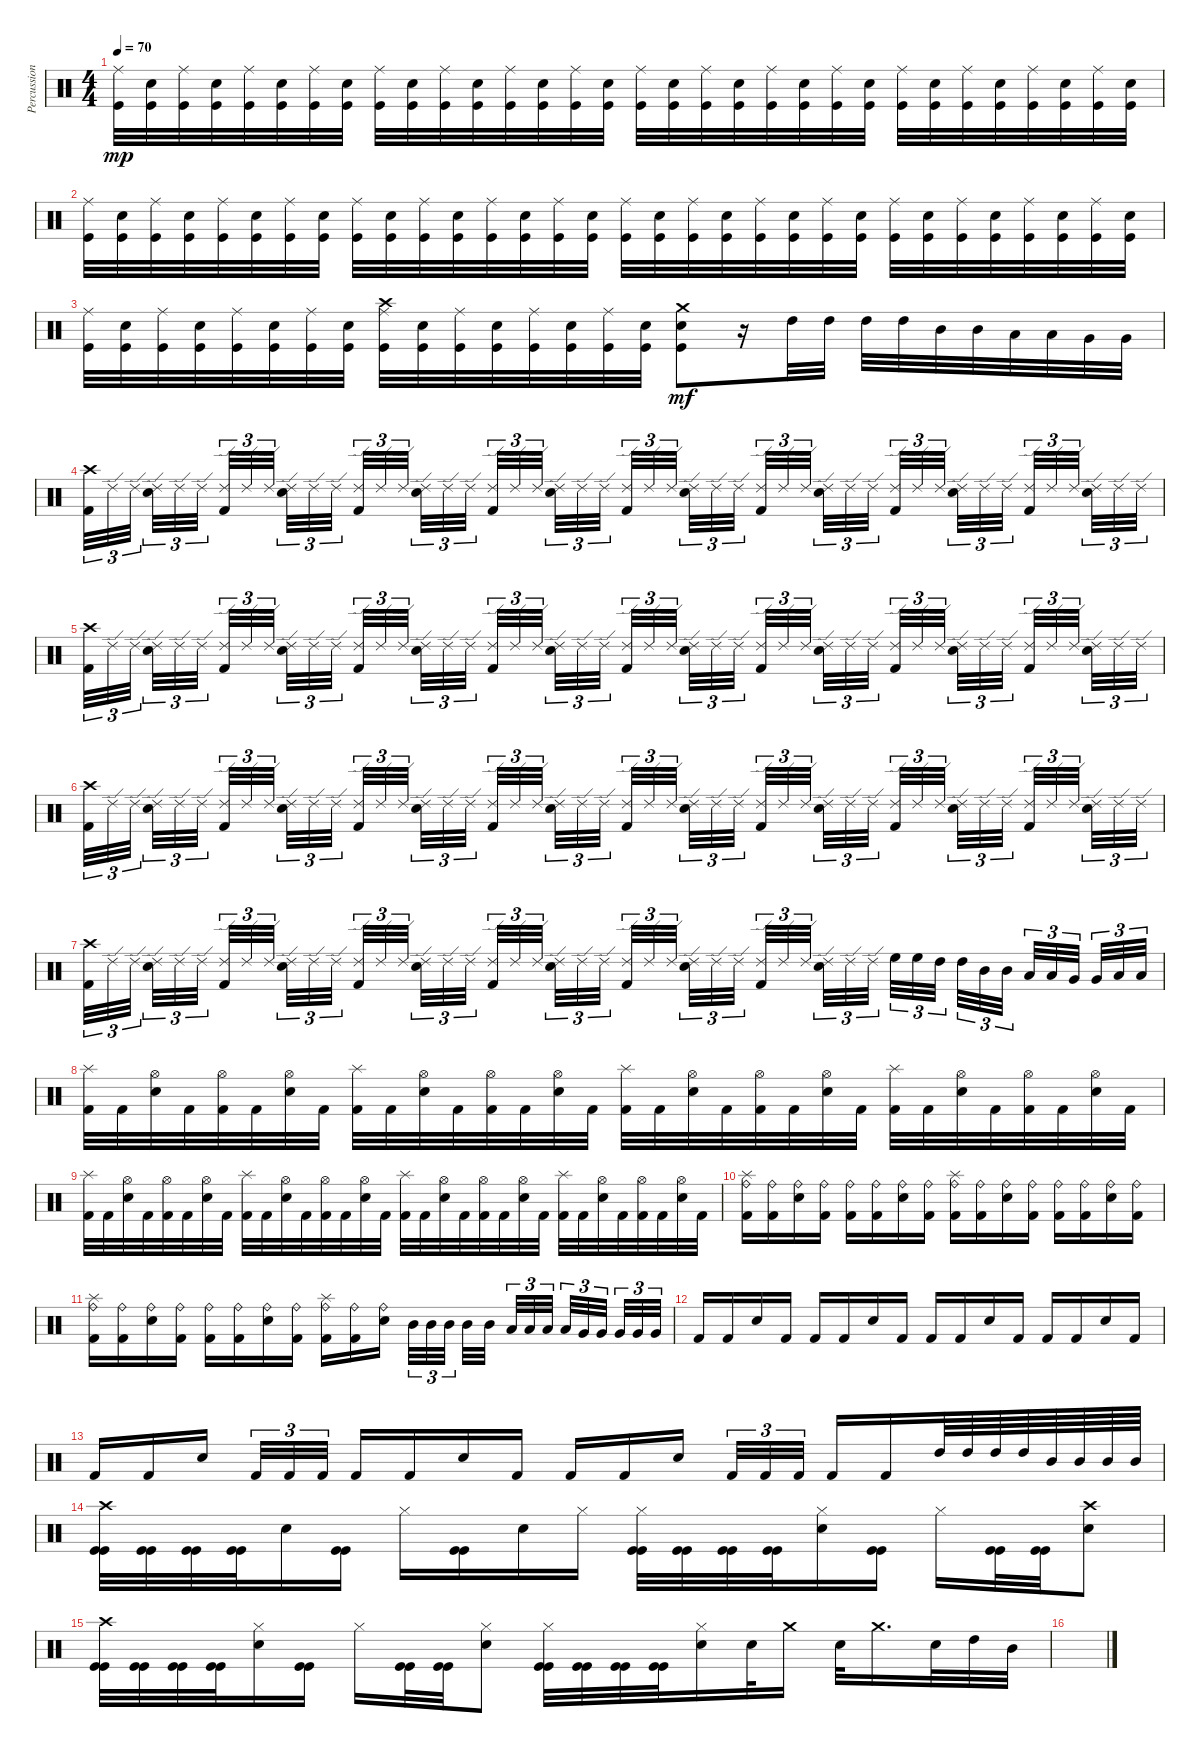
\track ("Percussion" "Percussion") {instrument percussion}
\staff {score}
\articulation defaults
\ts (4 4)
\tempo 70
\clef neutral
\ks c
("Ride (middle)" "Kick (hit)").32{dy mp} ("Electric Snare (hit)" "Kick (hit)").32 ("Ride (middle)" "Kick (hit)").32 ("Electric Snare (hit)" "Kick (hit)").32 ("Ride (middle)" "Kick (hit)").32 ("Electric Snare (hit)" "Kick (hit)").32 ("Ride (middle)" "Kick (hit)").32 ("Electric Snare (hit)" "Kick (hit)").32 ("Ride (middle)" "Kick (hit)").32 ("Electric Snare (hit)" "Kick (hit)").32 ("Ride (middle)" "Kick (hit)").32 ("Electric Snare (hit)" "Kick (hit)").32 ("Ride (middle)" "Kick (hit)").32 ("Electric Snare (hit)" "Kick (hit)").32 ("Ride (middle)" "Kick (hit)").32 ("Electric Snare (hit)" "Kick (hit)").32 ("Ride (middle)" "Kick (hit)").32 ("Electric Snare (hit)" "Kick (hit)").32 ("Ride (middle)" "Kick (hit)").32 ("Electric Snare (hit)" "Kick (hit)").32 ("Ride (middle)" "Kick (hit)").32 ("Electric Snare (hit)" "Kick (hit)").32 ("Ride (middle)" "Kick (hit)").32 ("Electric Snare (hit)" "Kick (hit)").32 ("Ride (middle)" "Kick (hit)").32 ("Electric Snare (hit)" "Kick (hit)").32 ("Ride (middle)" "Kick (hit)").32 ("Electric Snare (hit)" "Kick (hit)").32 ("Ride (middle)" "Kick (hit)").32 ("Electric Snare (hit)" "Kick (hit)").32 ("Ride (middle)" "Kick (hit)").32 ("Electric Snare (hit)" "Kick (hit)").32 |
("Ride (middle)" "Kick (hit)").32 ("Electric Snare (hit)" "Kick (hit)").32 ("Ride (middle)" "Kick (hit)").32 ("Electric Snare (hit)" "Kick (hit)").32 ("Ride (middle)" "Kick (hit)").32 ("Electric Snare (hit)" "Kick (hit)").32 ("Ride (middle)" "Kick (hit)").32 ("Electric Snare (hit)" "Kick (hit)").32 ("Ride (middle)" "Kick (hit)").32 ("Electric Snare (hit)" "Kick (hit)").32 ("Ride (middle)" "Kick (hit)").32 ("Electric Snare (hit)" "Kick (hit)").32 ("Ride (middle)" "Kick (hit)").32 ("Electric Snare (hit)" "Kick (hit)").32 ("Ride (middle)" "Kick (hit)").32 ("Electric Snare (hit)" "Kick (hit)").32 ("Ride (middle)" "Kick (hit)").32 ("Electric Snare (hit)" "Kick (hit)").32 ("Ride (middle)" "Kick (hit)").32 ("Electric Snare (hit)" "Kick (hit)").32 ("Ride (middle)" "Kick (hit)").32 ("Electric Snare (hit)" "Kick (hit)").32 ("Ride (middle)" "Kick (hit)").32 ("Electric Snare (hit)" "Kick (hit)").32 ("Ride (middle)" "Kick (hit)").32 ("Electric Snare (hit)" "Kick (hit)").32 ("Ride (middle)" "Kick (hit)").32 ("Electric Snare (hit)" "Kick (hit)").32 ("Ride (middle)" "Kick (hit)").32 ("Electric Snare (hit)" "Kick (hit)").32 ("Ride (middle)" "Kick (hit)").32 ("Electric Snare (hit)" "Kick (hit)").32 |
("Ride (middle)" "Kick (hit)").32 ("Electric Snare (hit)" "Kick (hit)").32 ("Ride (middle)" "Kick (hit)").32 ("Electric Snare (hit)" "Kick (hit)").32 ("Ride (middle)" "Kick (hit)").32 ("Electric Snare (hit)" "Kick (hit)").32 ("Ride (middle)" "Kick (hit)").32 ("Electric Snare (hit)" "Kick (hit)").32 ("Crash high (hit)" "Ride (middle)" "Kick (hit)").32 ("Electric Snare (hit)" "Kick (hit)").32 ("Ride (middle)" "Kick (hit)").32 ("Electric Snare (hit)" "Kick (hit)").32 ("Ride (middle)" "Kick (hit)").32 ("Electric Snare (hit)" "Kick (hit)").32 ("Ride (middle)" "Kick (hit)").32 ("Electric Snare (hit)" "Kick (hit)").32 ("Crash medium (hit)" "Electric Snare (hit)" "Kick (hit)").8{dy mf} r.16 "High Tom (hit)".32 "High Tom (hit)".32 "High Tom (hit)".32 "High Tom (hit)".32 "Mid Tom (hit)".32 "Mid Tom (hit)".32 "Low Tom (hit)".32 "Low Tom (hit)".32 "Very Low Tom (hit)".32 "Very Low Tom (hit)".32 |
("Crash high (hit)" "Kick (hit) 2").32{tu (3 2)} "Ride (edge) 2".32{tu (3 2)} "Ride (edge) 2".32{tu (3 2) beam splitsecondary} ("Ride (edge) 2" "Snare (hit) 2").32{tu (3 2)} "Ride (edge) 2".32{tu (3 2)} "Ride (edge) 2".32{tu (3 2) beam splitsecondary} ("Ride (edge) 2" "Kick (hit) 2").32{tu (3 2)} "Ride (edge) 2".32{tu (3 2)} "Ride (edge) 2".32{tu (3 2) beam splitsecondary} ("Ride (edge) 2" "Snare (hit) 2").32{tu (3 2)} "Ride (edge) 2".32{tu (3 2)} "Ride (edge) 2".32{tu (3 2)} ("Ride (edge) 2" "Kick (hit) 2").32{tu (3 2)} "Ride (edge) 2".32{tu (3 2)} "Ride (edge) 2".32{tu (3 2) beam splitsecondary} ("Ride (edge) 2" "Snare (hit) 2").32{tu (3 2)} "Ride (edge) 2".32{tu (3 2)} "Ride (edge) 2".32{tu (3 2) beam splitsecondary} ("Ride (edge) 2" "Kick (hit) 2").32{tu (3 2)} "Ride (edge) 2".32{tu (3 2)} "Ride (edge) 2".32{tu (3 2) beam splitsecondary} ("Ride (edge) 2" "Snare (hit) 2").32{tu (3 2)} "Ride (edge) 2".32{tu (3 2)} "Ride (edge) 2".32{tu (3 2)} ("Ride (edge) 2" "Kick (hit) 2").32{tu (3 2)} "Ride (edge) 2".32{tu (3 2)} "Ride (edge) 2".32{tu (3 2) beam splitsecondary} ("Ride (edge) 2" "Snare (hit) 2").32{tu (3 2)} "Ride (edge) 2".32{tu (3 2)} "Ride (edge) 2".32{tu (3 2) beam splitsecondary} ("Ride (edge) 2" "Kick (hit) 2").32{tu (3 2)} "Ride (edge) 2".32{tu (3 2)} "Ride (edge) 2".32{tu (3 2) beam splitsecondary} ("Ride (edge) 2" "Snare (hit) 2").32{tu (3 2)} "Ride (edge) 2".32{tu (3 2)} "Ride (edge) 2".32{tu (3 2)} ("Ride (edge) 2" "Kick (hit) 2").32{tu (3 2)} "Ride (edge) 2".32{tu (3 2)} "Ride (edge) 2".32{tu (3 2) beam splitsecondary} ("Ride (edge) 2" "Snare (hit) 2").32{tu (3 2)} "Ride (edge) 2".32{tu (3 2)} "Ride (edge) 2".32{tu (3 2) beam splitsecondary} ("Ride (edge) 2" "Kick (hit) 2").32{tu (3 2)} "Ride (edge) 2".32{tu (3 2)} "Ride (edge) 2".32{tu (3 2) beam splitsecondary} ("Ride (edge) 2" "Snare (hit) 2").32{tu (3 2)} "Ride (edge) 2".32{tu (3 2)} "Ride (edge) 2".32{tu (3 2)} |
("Crash high (hit)" "Kick (hit) 2").32{tu (3 2)} "Ride (edge) 2".32{tu (3 2)} "Ride (edge) 2".32{tu (3 2) beam splitsecondary} ("Ride (edge) 2" "Snare (hit) 2").32{tu (3 2)} "Ride (edge) 2".32{tu (3 2)} "Ride (edge) 2".32{tu (3 2) beam splitsecondary} ("Ride (edge) 2" "Kick (hit) 2").32{tu (3 2)} "Ride (edge) 2".32{tu (3 2)} "Ride (edge) 2".32{tu (3 2) beam splitsecondary} ("Ride (edge) 2" "Snare (hit) 2").32{tu (3 2)} "Ride (edge) 2".32{tu (3 2)} "Ride (edge) 2".32{tu (3 2)} ("Ride (edge) 2" "Kick (hit) 2").32{tu (3 2)} "Ride (edge) 2".32{tu (3 2)} "Ride (edge) 2".32{tu (3 2) beam splitsecondary} ("Ride (edge) 2" "Snare (hit) 2").32{tu (3 2)} "Ride (edge) 2".32{tu (3 2)} "Ride (edge) 2".32{tu (3 2) beam splitsecondary} ("Ride (edge) 2" "Kick (hit) 2").32{tu (3 2)} "Ride (edge) 2".32{tu (3 2)} "Ride (edge) 2".32{tu (3 2) beam splitsecondary} ("Ride (edge) 2" "Snare (hit) 2").32{tu (3 2)} "Ride (edge) 2".32{tu (3 2)} "Ride (edge) 2".32{tu (3 2)} ("Ride (edge) 2" "Kick (hit) 2").32{tu (3 2)} "Ride (edge) 2".32{tu (3 2)} "Ride (edge) 2".32{tu (3 2) beam splitsecondary} ("Ride (edge) 2" "Snare (hit) 2").32{tu (3 2)} "Ride (edge) 2".32{tu (3 2)} "Ride (edge) 2".32{tu (3 2) beam splitsecondary} ("Ride (edge) 2" "Kick (hit) 2").32{tu (3 2)} "Ride (edge) 2".32{tu (3 2)} "Ride (edge) 2".32{tu (3 2) beam splitsecondary} ("Ride (edge) 2" "Snare (hit) 2").32{tu (3 2)} "Ride (edge) 2".32{tu (3 2)} "Ride (edge) 2".32{tu (3 2)} ("Ride (edge) 2" "Kick (hit) 2").32{tu (3 2)} "Ride (edge) 2".32{tu (3 2)} "Ride (edge) 2".32{tu (3 2) beam splitsecondary} ("Ride (edge) 2" "Snare (hit) 2").32{tu (3 2)} "Ride (edge) 2".32{tu (3 2)} "Ride (edge) 2".32{tu (3 2) beam splitsecondary} ("Ride (edge) 2" "Kick (hit) 2").32{tu (3 2)} "Ride (edge) 2".32{tu (3 2)} "Ride (edge) 2".32{tu (3 2) beam splitsecondary} ("Ride (edge) 2" "Snare (hit) 2").32{tu (3 2)} "Ride (edge) 2".32{tu (3 2)} "Ride (edge) 2".32{tu (3 2)} |
("Crash high (hit)" "Kick (hit) 2").32{tu (3 2)} "Ride (edge) 2".32{tu (3 2)} "Ride (edge) 2".32{tu (3 2) beam splitsecondary} ("Ride (edge) 2" "Snare (hit) 2").32{tu (3 2)} "Ride (edge) 2".32{tu (3 2)} "Ride (edge) 2".32{tu (3 2) beam splitsecondary} ("Ride (edge) 2" "Kick (hit) 2").32{tu (3 2)} "Ride (edge) 2".32{tu (3 2)} "Ride (edge) 2".32{tu (3 2) beam splitsecondary} ("Ride (edge) 2" "Snare (hit) 2").32{tu (3 2)} "Ride (edge) 2".32{tu (3 2)} "Ride (edge) 2".32{tu (3 2)} ("Ride (edge) 2" "Kick (hit) 2").32{tu (3 2)} "Ride (edge) 2".32{tu (3 2)} "Ride (edge) 2".32{tu (3 2) beam splitsecondary} ("Ride (edge) 2" "Snare (hit) 2").32{tu (3 2)} "Ride (edge) 2".32{tu (3 2)} "Ride (edge) 2".32{tu (3 2) beam splitsecondary} ("Ride (edge) 2" "Kick (hit) 2").32{tu (3 2)} "Ride (edge) 2".32{tu (3 2)} "Ride (edge) 2".32{tu (3 2) beam splitsecondary} ("Ride (edge) 2" "Snare (hit) 2").32{tu (3 2)} "Ride (edge) 2".32{tu (3 2)} "Ride (edge) 2".32{tu (3 2)} ("Ride (edge) 2" "Kick (hit) 2").32{tu (3 2)} "Ride (edge) 2".32{tu (3 2)} "Ride (edge) 2".32{tu (3 2) beam splitsecondary} ("Ride (edge) 2" "Snare (hit) 2").32{tu (3 2)} "Ride (edge) 2".32{tu (3 2)} "Ride (edge) 2".32{tu (3 2) beam splitsecondary} ("Ride (edge) 2" "Kick (hit) 2").32{tu (3 2)} "Ride (edge) 2".32{tu (3 2)} "Ride (edge) 2".32{tu (3 2) beam splitsecondary} ("Ride (edge) 2" "Snare (hit) 2").32{tu (3 2)} "Ride (edge) 2".32{tu (3 2)} "Ride (edge) 2".32{tu (3 2)} ("Ride (edge) 2" "Kick (hit) 2").32{tu (3 2)} "Ride (edge) 2".32{tu (3 2)} "Ride (edge) 2".32{tu (3 2) beam splitsecondary} ("Ride (edge) 2" "Snare (hit) 2").32{tu (3 2)} "Ride (edge) 2".32{tu (3 2)} "Ride (edge) 2".32{tu (3 2) beam splitsecondary} ("Ride (edge) 2" "Kick (hit) 2").32{tu (3 2)} "Ride (edge) 2".32{tu (3 2)} "Ride (edge) 2".32{tu (3 2) beam splitsecondary} ("Ride (edge) 2" "Snare (hit) 2").32{tu (3 2)} "Ride (edge) 2".32{tu (3 2)} "Ride (edge) 2".32{tu (3 2)} |
("Crash high (hit)" "Kick (hit) 2").32{tu (3 2)} "Ride (edge) 2".32{tu (3 2)} "Ride (edge) 2".32{tu (3 2) beam splitsecondary} ("Ride (edge) 2" "Snare (hit) 2").32{tu (3 2)} "Ride (edge) 2".32{tu (3 2)} "Ride (edge) 2".32{tu (3 2) beam splitsecondary} ("Ride (edge) 2" "Kick (hit) 2").32{tu (3 2)} "Ride (edge) 2".32{tu (3 2)} "Ride (edge) 2".32{tu (3 2) beam splitsecondary} ("Ride (edge) 2" "Snare (hit) 2").32{tu (3 2)} "Ride (edge) 2".32{tu (3 2)} "Ride (edge) 2".32{tu (3 2)} ("Ride (edge) 2" "Kick (hit) 2").32{tu (3 2)} "Ride (edge) 2".32{tu (3 2)} "Ride (edge) 2".32{tu (3 2) beam splitsecondary} ("Ride (edge) 2" "Snare (hit) 2").32{tu (3 2)} "Ride (edge) 2".32{tu (3 2)} "Ride (edge) 2".32{tu (3 2) beam splitsecondary} ("Ride (edge) 2" "Kick (hit) 2").32{tu (3 2)} "Ride (edge) 2".32{tu (3 2)} "Ride (edge) 2".32{tu (3 2) beam splitsecondary} ("Ride (edge) 2" "Snare (hit) 2").32{tu (3 2)} "Ride (edge) 2".32{tu (3 2)} "Ride (edge) 2".32{tu (3 2)} ("Ride (edge) 2" "Kick (hit) 2").32{tu (3 2)} "Ride (edge) 2".32{tu (3 2)} "Ride (edge) 2".32{tu (3 2) beam splitsecondary} ("Ride (edge) 2" "Snare (hit) 2").32{tu (3 2)} "Ride (edge) 2".32{tu (3 2)} "Ride (edge) 2".32{tu (3 2) beam splitsecondary} ("Ride (edge) 2" "Kick (hit) 2").32{tu (3 2)} "Ride (edge) 2".32{tu (3 2)} "Ride (edge) 2".32{tu (3 2) beam splitsecondary} ("Ride (edge) 2" "Snare (hit) 2").32{tu (3 2)} "Ride (edge) 2".32{tu (3 2)} "Ride (edge) 2".32{tu (3 2)} "High Floor Tom (hit)".32{tu (3 2)} "High Floor Tom (hit)".32{tu (3 2)} "High Tom (hit)".32{tu (3 2) beam splitsecondary} "High Tom (hit)".32{tu (3 2)} "Mid Tom (hit)".32{tu (3 2)} "Mid Tom (hit)".32{tu (3 2) beam splitsecondary} "Low Tom (hit)".32{tu (3 2)} "Low Tom (hit)".32{tu (3 2)} "Very Low Tom (hit)".32{tu (3 2) beam splitsecondary} "Very Low Tom (hit)".32{tu (3 2)} "Low Floor Tom (hit)".32{tu (3 2)} "Low Floor Tom (hit)".32{tu (3 2)} |
("Splash (hit)" "Kick (hit) 2").32 "Kick (hit) 2".32 ("Hi-Hat (open)" "Snare (hit) 2").32 "Kick (hit) 2".32 ("Hi-Hat (open)" "Kick (hit) 2").32 "Kick (hit) 2".32 ("Hi-Hat (open)" "Snare (hit) 2").32 "Kick (hit) 2".32 ("Splash (hit)" "Kick (hit) 2").32 "Kick (hit) 2".32 ("Hi-Hat (open)" "Snare (hit) 2").32 "Kick (hit) 2".32 ("Hi-Hat (open)" "Kick (hit) 2").32 "Kick (hit) 2".32 ("Hi-Hat (open)" "Snare (hit) 2").32 "Kick (hit) 2".32 ("Splash (hit)" "Kick (hit) 2").32 "Kick (hit) 2".32 ("Hi-Hat (open)" "Snare (hit) 2").32 "Kick (hit) 2".32 ("Hi-Hat (open)" "Kick (hit) 2").32 "Kick (hit) 2".32 ("Hi-Hat (open)" "Snare (hit) 2").32 "Kick (hit) 2".32 ("Splash (hit)" "Kick (hit) 2").32 "Kick (hit) 2".32 ("Hi-Hat (open)" "Snare (hit) 2").32 "Kick (hit) 2".32 ("Hi-Hat (open)" "Kick (hit) 2").32 "Kick (hit) 2".32 ("Hi-Hat (open)" "Snare (hit) 2").32 "Kick (hit) 2".32 |
("Splash (hit)" "Kick (hit) 2").32 "Kick (hit) 2".32 ("Hi-Hat (open)" "Snare (hit) 2").32 "Kick (hit) 2".32 ("Hi-Hat (open)" "Kick (hit) 2").32 "Kick (hit) 2".32 ("Hi-Hat (open)" "Snare (hit) 2").32 "Kick (hit) 2".32 ("Splash (hit)" "Kick (hit) 2").32 "Kick (hit) 2".32 ("Hi-Hat (open)" "Snare (hit) 2").32 "Kick (hit) 2".32 ("Hi-Hat (open)" "Kick (hit) 2").32 "Kick (hit) 2".32 ("Hi-Hat (open)" "Snare (hit) 2").32 "Kick (hit) 2".32 ("Splash (hit)" "Kick (hit) 2").32 "Kick (hit) 2".32 ("Hi-Hat (open)" "Snare (hit) 2").32 "Kick (hit) 2".32 ("Hi-Hat (open)" "Kick (hit) 2").32 "Kick (hit) 2".32 ("Hi-Hat (open)" "Snare (hit) 2").32 "Kick (hit) 2".32 ("Splash (hit)" "Kick (hit) 2").32 "Kick (hit) 2".32 ("Hi-Hat (open)" "Snare (hit) 2").32 "Kick (hit) 2".32 ("Hi-Hat (open)" "Kick (hit) 2").32 "Kick (hit) 2".32 ("Hi-Hat (open)" "Snare (hit) 2").32 "Kick (hit) 2".32 |
("Splash (hit)" "Ride (bell)" "Kick (hit) 2").16 ("Ride (bell)" "Kick (hit) 2").16 ("Ride (bell)" "Snare (hit) 2").16 ("Ride (bell)" "Kick (hit) 2").16 ("Ride (bell)" "Kick (hit) 2").16 ("Ride (bell)" "Kick (hit) 2").16 ("Ride (bell)" "Snare (hit) 2").16 ("Ride (bell)" "Kick (hit) 2").16 ("Splash (hit)" "Ride (bell)" "Kick (hit) 2").16 ("Ride (bell)" "Kick (hit) 2").16 ("Ride (bell)" "Snare (hit) 2").16 ("Ride (bell)" "Kick (hit) 2").16 ("Ride (bell)" "Kick (hit) 2").16 ("Ride (bell)" "Kick (hit) 2").16 ("Ride (bell)" "Snare (hit) 2").16 ("Ride (bell)" "Kick (hit) 2").16 |
("Splash (hit)" "Ride (bell)" "Kick (hit) 2").16 ("Ride (bell)" "Kick (hit) 2").16 ("Ride (bell)" "Snare (hit) 2").16 ("Ride (bell)" "Kick (hit) 2").16 ("Ride (bell)" "Kick (hit) 2").16 ("Ride (bell)" "Kick (hit) 2").16 ("Ride (bell)" "Snare (hit) 2").16 ("Ride (bell)" "Kick (hit) 2").16 ("Splash (hit)" "Ride (bell)" "Kick (hit) 2").16 ("Ride (bell)" "Kick (hit) 2").16 ("Ride (bell)" "Snare (hit) 2").16{beam splitsecondary} "Mid Tom (hit)".32{tu (3 2)} "Mid Tom (hit)".32{tu (3 2)} "Mid Tom (hit)".32{tu (3 2)} "Mid Tom (hit)".32 "Mid Tom (hit)".32{beam splitsecondary} "Low Tom (hit)".32{tu (3 2)} "Low Tom (hit)".32{tu (3 2)} "Low Tom (hit)".32{tu (3 2) beam splitsecondary} "Low Tom (hit)".32{tu (3 2)} "Very Low Tom (hit)".32{tu (3 2)} "Very Low Tom (hit)".32{tu (3 2) beam splitsecondary} "Very Low Tom (hit)".32{tu (3 2)} "Very Low Tom (hit)".32{tu (3 2)} "Very Low Tom (hit)".32{tu (3 2)} |
"Kick (hit) 2".16 "Kick (hit) 2".16 "Electric Snare (hit)".16 "Kick (hit) 2".16 "Kick (hit) 2".16 "Kick (hit) 2".16 "Electric Snare (hit)".16 "Kick (hit) 2".16 "Kick (hit) 2".16 "Kick (hit) 2".16 "Electric Snare (hit)".16 "Kick (hit) 2".16 "Kick (hit) 2".16 "Kick (hit) 2".16 "Electric Snare (hit)".16 "Kick (hit) 2".16 |
"Kick (hit) 2".16 "Kick (hit) 2".16 "Electric Snare (hit)".16{beam splitsecondary} "Kick (hit) 2".32{tu (3 2)} "Kick (hit) 2".32{tu (3 2)} "Kick (hit) 2".32{tu (3 2)} "Kick (hit) 2".16 "Kick (hit) 2".16 "Electric Snare (hit)".16 "Kick (hit) 2".16 "Kick (hit) 2".16 "Kick (hit) 2".16 "Electric Snare (hit)".16{beam splitsecondary} "Kick (hit) 2".32{tu (3 2)} "Kick (hit) 2".32{tu (3 2)} "Kick (hit) 2".32{tu (3 2)} "Kick (hit) 2".16 "Kick (hit) 2".16 "High Tom (hit)".64 "High Tom (hit)".64 "High Tom (hit)".64 "High Tom (hit)".64 "Mid Tom (hit)".64 "Mid Tom (hit)".64 "Mid Tom (hit)".64 "Mid Tom (hit)".64 |
("Crash high (hit)" "Kick (hit)" "Kick (hit)").32 ("Kick (hit)" "Kick (hit)").32 ("Kick (hit)" "Kick (hit)").32 ("Kick (hit)" "Kick (hit)").32 "Snare (hit) 2".16 ("Kick (hit)" "Kick (hit)").16 "Hi-Hat (closed)".16 ("Kick (hit)" "Kick (hit)").16 "Snare (hit) 2".16 "Hi-Hat (closed)".16 ("Hi-Hat (closed)" "Kick (hit)" "Kick (hit)").32 ("Kick (hit)" "Kick (hit)").32 ("Kick (hit)" "Kick (hit)").32 ("Kick (hit)" "Kick (hit)").32 ("Hi-Hat (closed)" "Snare (hit) 2").16 ("Kick (hit)" "Kick (hit)").16 "Hi-Hat (closed)".16 ("Kick (hit)" "Kick (hit)").32 ("Kick (hit)" "Kick (hit)").32 ("Crash high (hit)" "Snare (hit) 2").8 |
("Crash high (hit)" "Kick (hit)" "Kick (hit)").32 ("Kick (hit)" "Kick (hit)").32 ("Kick (hit)" "Kick (hit)").32 ("Kick (hit)" "Kick (hit)").32 ("Hi-Hat (closed)" "Snare (hit) 2").16 ("Kick (hit)" "Kick (hit)").16 "Hi-Hat (closed)".16 ("Kick (hit)" "Kick (hit)").32 ("Kick (hit)" "Kick (hit)").32 ("Hi-Hat (closed)" "Snare (hit) 2").8 ("Hi-Hat (closed)" "Kick (hit)" "Kick (hit)").32 ("Kick (hit)" "Kick (hit)").32 ("Kick (hit)" "Kick (hit)").32 ("Kick (hit)" "Kick (hit)").32 ("Hi-Hat (closed)" "Snare (hit) 2").16 "Electric Snare (hit)".32 "Crash medium (hit)".16 "Electric Snare (hit)".32 "Crash medium (hit)".16{d} "Electric Snare (hit)".32 "High Tom (hit)".32 "Mid Tom (hit)".32 |
\ks aminor
